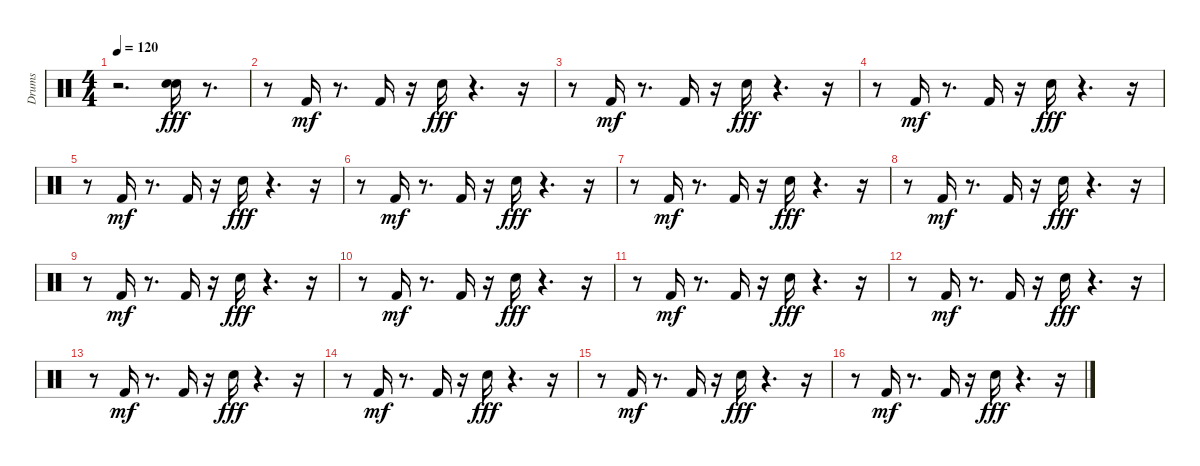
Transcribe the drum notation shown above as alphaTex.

\track ("Drums" "Drums") {instrument percussion}
\staff {score}
\articulation defaults
\ts (4 4)
\tempo 120
\clef neutral
\ks c
r.2{d dy fff} ("Snare (hit) 2" "Electric Snare (hit)").16 r.8{d} |
r.8 "Kick (hit) 2".16{dy mf} r.8{d} "Kick (hit) 2".16 r.16 "Snare (hit) 2".16{dy fff} r.4{d} r.16 |
r.8 "Kick (hit) 2".16{dy mf} r.8{d} "Kick (hit) 2".16 r.16 "Snare (hit) 2".16{dy fff} r.4{d} r.16 |
r.8 "Kick (hit) 2".16{dy mf} r.8{d} "Kick (hit) 2".16 r.16 "Snare (hit) 2".16{dy fff} r.4{d} r.16 |
r.8 "Kick (hit) 2".16{dy mf} r.8{d} "Kick (hit) 2".16 r.16 "Snare (hit) 2".16{dy fff} r.4{d} r.16 |
r.8 "Kick (hit) 2".16{dy mf} r.8{d} "Kick (hit) 2".16 r.16 "Snare (hit) 2".16{dy fff} r.4{d} r.16 |
r.8 "Kick (hit) 2".16{dy mf} r.8{d} "Kick (hit) 2".16 r.16 "Snare (hit) 2".16{dy fff} r.4{d} r.16 |
r.8 "Kick (hit) 2".16{dy mf} r.8{d} "Kick (hit) 2".16 r.16 "Snare (hit) 2".16{dy fff} r.4{d} r.16 |
r.8 "Kick (hit) 2".16{dy mf} r.8{d} "Kick (hit) 2".16 r.16 "Snare (hit) 2".16{dy fff} r.4{d} r.16 |
r.8 "Kick (hit) 2".16{dy mf} r.8{d} "Kick (hit) 2".16 r.16 "Snare (hit) 2".16{dy fff} r.4{d} r.16 |
r.8 "Kick (hit) 2".16{dy mf} r.8{d} "Kick (hit) 2".16 r.16 "Snare (hit) 2".16{dy fff} r.4{d} r.16 |
r.8 "Kick (hit) 2".16{dy mf} r.8{d} "Kick (hit) 2".16 r.16 "Snare (hit) 2".16{dy fff} r.4{d} r.16 |
r.8 "Kick (hit) 2".16{dy mf} r.8{d} "Kick (hit) 2".16 r.16 "Snare (hit) 2".16{dy fff} r.4{d} r.16 |
r.8 "Kick (hit) 2".16{dy mf} r.8{d} "Kick (hit) 2".16 r.16 "Snare (hit) 2".16{dy fff} r.4{d} r.16 |
r.8 "Kick (hit) 2".16{dy mf} r.8{d} "Kick (hit) 2".16 r.16 "Snare (hit) 2".16{dy fff} r.4{d} r.16 |
r.8 "Kick (hit) 2".16{dy mf} r.8{d} "Kick (hit) 2".16 r.16 "Snare (hit) 2".16{dy fff} r.4{d} r.16
